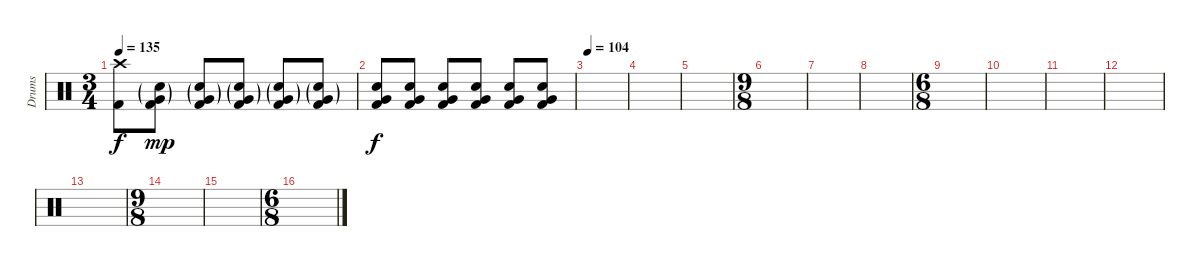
\track ("Drums" "Drums") {instrument percussion}
\staff {score}
\articulation defaults
\ts (3 4)
\tempo 135
\clef neutral
\ks c
("Crash high (hit)" "Kick (hit) 2").8{dy f} ("Very Low Tom (hit)"{g} "Snare (hit) 2"{g} "Kick (hit) 2").8{dy mp} ("Very Low Tom (hit)"{g} "Snare (hit) 2"{g} "Kick (hit) 2").8 ("Very Low Tom (hit)"{g} "Snare (hit) 2"{g} "Kick (hit) 2").8 ("Very Low Tom (hit)"{g} "Snare (hit) 2"{g} "Kick (hit) 2").8 ("Very Low Tom (hit)"{g} "Snare (hit) 2"{g} "Kick (hit) 2").8 |
("Very Low Tom (hit)" "Snare (hit) 2" "Kick (hit) 2").8{dy f} ("Very Low Tom (hit)" "Snare (hit) 2" "Kick (hit) 2").8 ("Very Low Tom (hit)" "Snare (hit) 2" "Kick (hit) 2").8 ("Very Low Tom (hit)" "Snare (hit) 2" "Kick (hit) 2").8 ("Very Low Tom (hit)" "Snare (hit) 2" "Kick (hit) 2").8 ("Very Low Tom (hit)" "Snare (hit) 2" "Kick (hit) 2").8 |
\tempo 104
|
|
|
\ts (9 8)
|
|
|
\ts (6 8)
|
|
|
|
|
\ts (9 8)
|
|
\ts (6 8)
